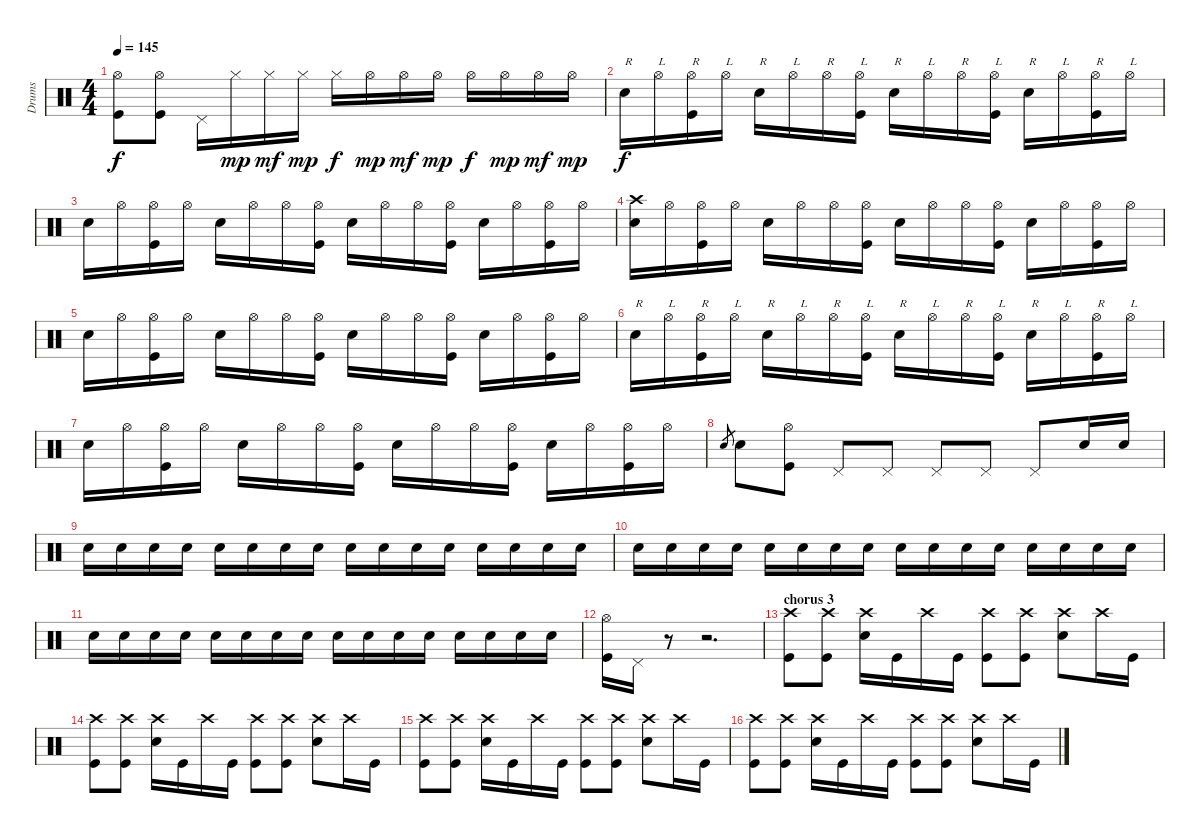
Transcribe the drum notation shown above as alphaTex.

\track ("Drums" "Drums") {instrument percussion}
\staff {score}
\articulation defaults
\ts (4 4)
\tempo 145
\clef neutral
\ks c
("Hi-Hat (open)" "Kick (hit)").8{dy f} ("Hi-Hat (open)" "Kick (hit)").8 "Pedal Hi-Hat (hit)".16 "Hi-Hat (closed)".16{dy mp} "Hi-Hat (closed)".16{dy mf} "Hi-Hat (closed)".16{dy mp} "Hi-Hat (closed)".16{dy f} "Hi-Hat (open)".16{dy mp} "Hi-Hat (open)".16{dy mf} "Hi-Hat (open)".16{dy mp} "Hi-Hat (open)".16{dy f} "Hi-Hat (open)".16{dy mp} "Hi-Hat (open)".16{dy mf} "Hi-Hat (open)".16{dy mp} |
"Electric Snare (hit)".16{txt "R" dy f} "Hi-Hat (open)".16{txt "L"} ("Hi-Hat (open)" "Kick (hit)").16{txt "R"} "Hi-Hat (open)".16{txt "L"} "Electric Snare (hit)".16{txt "R"} "Hi-Hat (open)".16{txt "L"} "Hi-Hat (open)".16{txt "R"} ("Hi-Hat (open)" "Kick (hit)").16{txt "L"} "Electric Snare (hit)".16{txt "R"} "Hi-Hat (open)".16{txt "L"} "Hi-Hat (open)".16{txt "R"} ("Hi-Hat (open)" "Kick (hit)").16{txt "L"} "Electric Snare (hit)".16{txt "R"} "Hi-Hat (open)".16{txt "L"} ("Hi-Hat (open)" "Kick (hit)").16{txt "R"} "Hi-Hat (open)".16{txt "L"} |
"Electric Snare (hit)".16 "Hi-Hat (open)".16 ("Hi-Hat (open)" "Kick (hit)").16 "Hi-Hat (open)".16 "Electric Snare (hit)".16 "Hi-Hat (open)".16 "Hi-Hat (open)".16 ("Hi-Hat (open)" "Kick (hit)").16 "Electric Snare (hit)".16 "Hi-Hat (open)".16 "Hi-Hat (open)".16 ("Hi-Hat (open)" "Kick (hit)").16 "Electric Snare (hit)".16 "Hi-Hat (open)".16 ("Hi-Hat (open)" "Kick (hit)").16 "Hi-Hat (open)".16 |
("Crash high (hit)" "Electric Snare (hit)").16 "Hi-Hat (open)".16 ("Hi-Hat (open)" "Kick (hit)").16 "Hi-Hat (open)".16 "Electric Snare (hit)".16 "Hi-Hat (open)".16 "Hi-Hat (open)".16 ("Hi-Hat (open)" "Kick (hit)").16 "Electric Snare (hit)".16 "Hi-Hat (open)".16 "Hi-Hat (open)".16 ("Hi-Hat (open)" "Kick (hit)").16 "Electric Snare (hit)".16 "Hi-Hat (open)".16 ("Hi-Hat (open)" "Kick (hit)").16 "Hi-Hat (open)".16 |
"Electric Snare (hit)".16 "Hi-Hat (open)".16 ("Hi-Hat (open)" "Kick (hit)").16 "Hi-Hat (open)".16 "Electric Snare (hit)".16 "Hi-Hat (open)".16 "Hi-Hat (open)".16 ("Hi-Hat (open)" "Kick (hit)").16 "Electric Snare (hit)".16 "Hi-Hat (open)".16 "Hi-Hat (open)".16 ("Hi-Hat (open)" "Kick (hit)").16 "Electric Snare (hit)".16 "Hi-Hat (open)".16 ("Hi-Hat (open)" "Kick (hit)").16 "Hi-Hat (open)".16 |
"Electric Snare (hit)".16{txt "R"} "Hi-Hat (open)".16{txt "L"} ("Hi-Hat (open)" "Kick (hit)").16{txt "R"} "Hi-Hat (open)".16{txt "L"} "Electric Snare (hit)".16{txt "R"} "Hi-Hat (open)".16{txt "L"} "Hi-Hat (open)".16{txt "R"} ("Hi-Hat (open)" "Kick (hit)").16{txt "L"} "Electric Snare (hit)".16{txt "R"} "Hi-Hat (open)".16{txt "L"} "Hi-Hat (open)".16{txt "R"} ("Hi-Hat (open)" "Kick (hit)").16{txt "L"} "Electric Snare (hit)".16{txt "R"} "Hi-Hat (open)".16{txt "L"} ("Hi-Hat (open)" "Kick (hit)").16{txt "R"} "Hi-Hat (open)".16{txt "L"} |
"Electric Snare (hit)".16 "Hi-Hat (open)".16 ("Hi-Hat (open)" "Kick (hit)").16 "Hi-Hat (open)".16 "Electric Snare (hit)".16 "Hi-Hat (open)".16 "Hi-Hat (open)".16 ("Hi-Hat (open)" "Kick (hit)").16 "Electric Snare (hit)".16 "Hi-Hat (open)".16 "Hi-Hat (open)".16 ("Hi-Hat (open)" "Kick (hit)").16 "Electric Snare (hit)".16 "Hi-Hat (open)".16 ("Hi-Hat (open)" "Kick (hit)").16 "Hi-Hat (open)".16 |
"Electric Snare (hit)".8{gr} "Electric Snare (hit)".8 ("Hi-Hat (open)" "Kick (hit)").8 "Pedal Hi-Hat (hit)".8 "Pedal Hi-Hat (hit)".8 "Pedal Hi-Hat (hit)".8 "Pedal Hi-Hat (hit)".8 "Pedal Hi-Hat (hit)".8 "Electric Snare (hit)".16 "Electric Snare (hit)".16 |
"Electric Snare (hit)".16 "Electric Snare (hit)".16 "Electric Snare (hit)".16 "Electric Snare (hit)".16 "Electric Snare (hit)".16 "Electric Snare (hit)".16 "Electric Snare (hit)".16 "Electric Snare (hit)".16 "Electric Snare (hit)".16 "Electric Snare (hit)".16 "Electric Snare (hit)".16 "Electric Snare (hit)".16 "Electric Snare (hit)".16 "Electric Snare (hit)".16 "Electric Snare (hit)".16 "Electric Snare (hit)".16 |
"Electric Snare (hit)".16 "Electric Snare (hit)".16 "Electric Snare (hit)".16 "Electric Snare (hit)".16 "Electric Snare (hit)".16 "Electric Snare (hit)".16 "Electric Snare (hit)".16 "Electric Snare (hit)".16 "Electric Snare (hit)".16 "Electric Snare (hit)".16 "Electric Snare (hit)".16 "Electric Snare (hit)".16 "Electric Snare (hit)".16 "Electric Snare (hit)".16 "Electric Snare (hit)".16 "Electric Snare (hit)".16 |
"Electric Snare (hit)".16 "Electric Snare (hit)".16 "Electric Snare (hit)".16 "Electric Snare (hit)".16 "Electric Snare (hit)".16 "Electric Snare (hit)".16 "Electric Snare (hit)".16 "Electric Snare (hit)".16 "Electric Snare (hit)".16 "Electric Snare (hit)".16 "Electric Snare (hit)".16 "Electric Snare (hit)".16 "Electric Snare (hit)".16 "Electric Snare (hit)".16 "Electric Snare (hit)".16 "Electric Snare (hit)".16 |
("Hi-Hat (open)" "Kick (hit)").16 "Pedal Hi-Hat (hit)".16 r.8 r.2{d} |
\section ("" "chorus 3")
("Crash high (hit)" "Kick (hit)").8 ("Crash high (hit)" "Kick (hit)").8 ("Crash high (hit)" "Electric Snare (hit)").16 "Kick (hit)".16 "Crash high (hit)".16 "Kick (hit)".16 ("Crash high (hit)" "Kick (hit)").8 ("Crash high (hit)" "Kick (hit)").8 ("Crash high (hit)" "Electric Snare (hit)").8 "Crash high (hit)".16 "Kick (hit)".16 |
("Crash high (hit)" "Kick (hit)").8 ("Crash high (hit)" "Kick (hit)").8 ("Crash high (hit)" "Electric Snare (hit)").16 "Kick (hit)".16 "Crash high (hit)".16 "Kick (hit)".16 ("Crash high (hit)" "Kick (hit)").8 ("Crash high (hit)" "Kick (hit)").8 ("Crash high (hit)" "Electric Snare (hit)").8 "Crash high (hit)".16 "Kick (hit)".16 |
("Crash high (hit)" "Kick (hit)").8 ("Crash high (hit)" "Kick (hit)").8 ("Crash high (hit)" "Electric Snare (hit)").16 "Kick (hit)".16 "Crash high (hit)".16 "Kick (hit)".16 ("Crash high (hit)" "Kick (hit)").8 ("Crash high (hit)" "Kick (hit)").8 ("Crash high (hit)" "Electric Snare (hit)").8 "Crash high (hit)".16 "Kick (hit)".16 |
("Crash high (hit)" "Kick (hit)").8 ("Crash high (hit)" "Kick (hit)").8 ("Crash high (hit)" "Electric Snare (hit)").16 "Kick (hit)".16 "Crash high (hit)".16 "Kick (hit)".16 ("Crash high (hit)" "Kick (hit)").8 ("Crash high (hit)" "Kick (hit)").8 ("Crash high (hit)" "Electric Snare (hit)").8 "Crash high (hit)".16 "Kick (hit)".16
